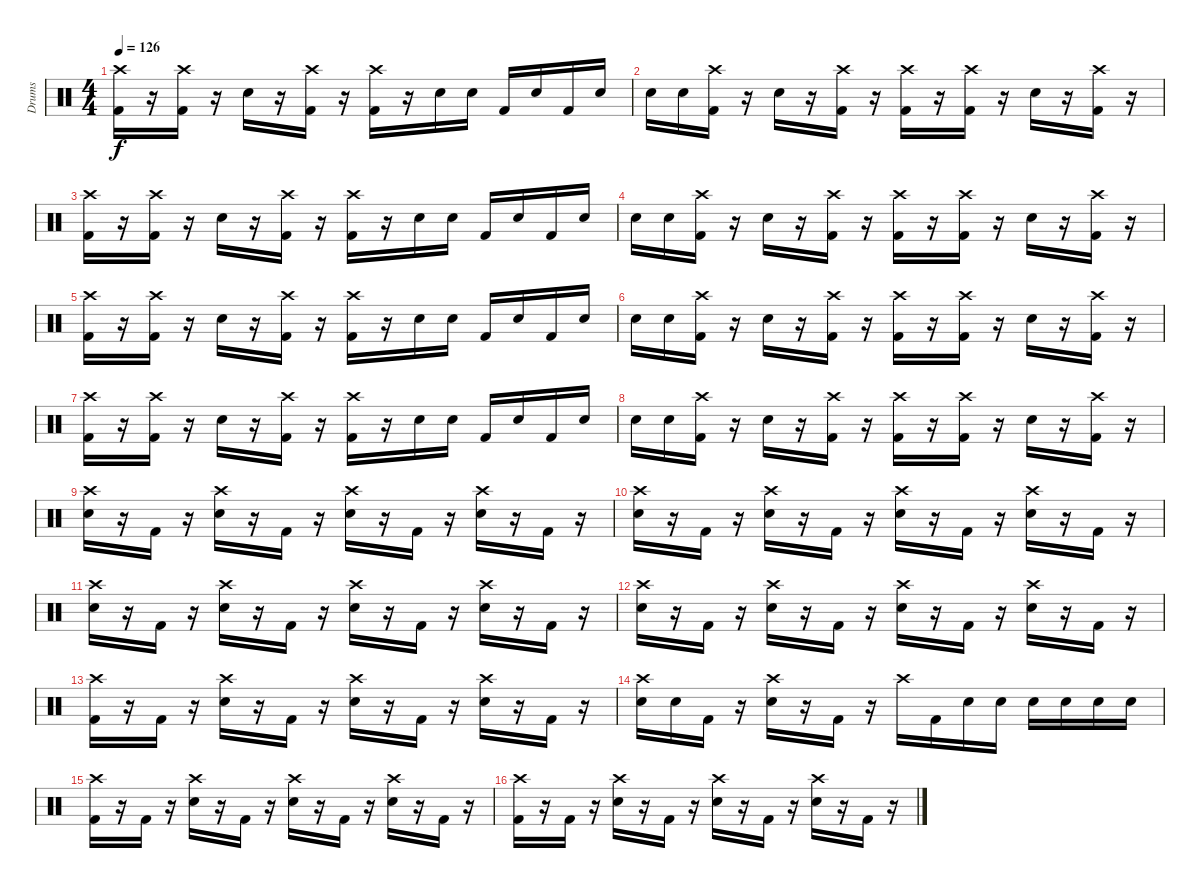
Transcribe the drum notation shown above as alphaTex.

\track ("Drums" "Drums") {instrument percussion}
\staff {score}
\articulation defaults
\ts (4 4)
\tempo 126
\clef neutral
\ks c
("Crash high (hit)" "Kick (hit) 2").16{dy f} r.16 ("Crash high (hit)" "Kick (hit) 2").16 r.16 "Electric Snare (hit)".16 r.16 ("Crash high (hit)" "Kick (hit) 2").16 r.16 ("Crash high (hit)" "Kick (hit) 2").16 r.16 "Electric Snare (hit)".16 "Electric Snare (hit)".16 "Kick (hit) 2".16 "Electric Snare (hit)".16 "Kick (hit) 2".16 "Electric Snare (hit)".16 |
"Electric Snare (hit)".16 "Electric Snare (hit)".16 ("Crash high (hit)" "Kick (hit) 2").16 r.16 "Electric Snare (hit)".16 r.16 ("Crash high (hit)" "Kick (hit) 2").16 r.16 ("Crash high (hit)" "Kick (hit) 2").16 r.16 ("Crash high (hit)" "Kick (hit) 2").16 r.16 "Electric Snare (hit)".16 r.16 ("Crash high (hit)" "Kick (hit) 2").16 r.16 |
("Crash high (hit)" "Kick (hit) 2").16 r.16 ("Crash high (hit)" "Kick (hit) 2").16 r.16 "Electric Snare (hit)".16 r.16 ("Crash high (hit)" "Kick (hit) 2").16 r.16 ("Crash high (hit)" "Kick (hit) 2").16 r.16 "Electric Snare (hit)".16 "Electric Snare (hit)".16 "Kick (hit) 2".16 "Electric Snare (hit)".16 "Kick (hit) 2".16 "Electric Snare (hit)".16 |
"Electric Snare (hit)".16 "Electric Snare (hit)".16 ("Crash high (hit)" "Kick (hit) 2").16 r.16 "Electric Snare (hit)".16 r.16 ("Crash high (hit)" "Kick (hit) 2").16 r.16 ("Crash high (hit)" "Kick (hit) 2").16 r.16 ("Crash high (hit)" "Kick (hit) 2").16 r.16 "Electric Snare (hit)".16 r.16 ("Crash high (hit)" "Kick (hit) 2").16 r.16 |
("Crash high (hit)" "Kick (hit) 2").16 r.16 ("Crash high (hit)" "Kick (hit) 2").16 r.16 "Electric Snare (hit)".16 r.16 ("Crash high (hit)" "Kick (hit) 2").16 r.16 ("Crash high (hit)" "Kick (hit) 2").16 r.16 "Electric Snare (hit)".16 "Electric Snare (hit)".16 "Kick (hit) 2".16 "Electric Snare (hit)".16 "Kick (hit) 2".16 "Electric Snare (hit)".16 |
"Electric Snare (hit)".16 "Electric Snare (hit)".16 ("Crash high (hit)" "Kick (hit) 2").16 r.16 "Electric Snare (hit)".16 r.16 ("Crash high (hit)" "Kick (hit) 2").16 r.16 ("Crash high (hit)" "Kick (hit) 2").16 r.16 ("Crash high (hit)" "Kick (hit) 2").16 r.16 "Electric Snare (hit)".16 r.16 ("Crash high (hit)" "Kick (hit) 2").16 r.16 |
("Crash high (hit)" "Kick (hit) 2").16 r.16 ("Crash high (hit)" "Kick (hit) 2").16 r.16 "Electric Snare (hit)".16 r.16 ("Crash high (hit)" "Kick (hit) 2").16 r.16 ("Crash high (hit)" "Kick (hit) 2").16 r.16 "Electric Snare (hit)".16 "Electric Snare (hit)".16 "Kick (hit) 2".16 "Electric Snare (hit)".16 "Kick (hit) 2".16 "Electric Snare (hit)".16 |
"Electric Snare (hit)".16 "Electric Snare (hit)".16 ("Crash high (hit)" "Kick (hit) 2").16 r.16 "Electric Snare (hit)".16 r.16 ("Crash high (hit)" "Kick (hit) 2").16 r.16 ("Crash high (hit)" "Kick (hit) 2").16 r.16 ("Crash high (hit)" "Kick (hit) 2").16 r.16 "Electric Snare (hit)".16 r.16 ("Crash high (hit)" "Kick (hit) 2").16 r.16 |
("Crash high (hit)" "Electric Snare (hit)").16 r.16 "Kick (hit) 2".16 r.16 ("Crash high (hit)" "Electric Snare (hit)").16 r.16 "Kick (hit) 2".16 r.16 ("Crash high (hit)" "Electric Snare (hit)").16 r.16 "Kick (hit) 2".16 r.16 ("Crash high (hit)" "Electric Snare (hit)").16 r.16 "Kick (hit) 2".16 r.16 |
("Crash high (hit)" "Electric Snare (hit)").16 r.16 "Kick (hit) 2".16 r.16 ("Crash high (hit)" "Electric Snare (hit)").16 r.16 "Kick (hit) 2".16 r.16 ("Crash high (hit)" "Electric Snare (hit)").16 r.16 "Kick (hit) 2".16 r.16 ("Crash high (hit)" "Electric Snare (hit)").16 r.16 "Kick (hit) 2".16 r.16 |
("Crash high (hit)" "Electric Snare (hit)").16 r.16 "Kick (hit) 2".16 r.16 ("Crash high (hit)" "Electric Snare (hit)").16 r.16 "Kick (hit) 2".16 r.16 ("Crash high (hit)" "Electric Snare (hit)").16 r.16 "Kick (hit) 2".16 r.16 ("Crash high (hit)" "Electric Snare (hit)").16 r.16 "Kick (hit) 2".16 r.16 |
("Crash high (hit)" "Electric Snare (hit)").16 r.16 "Kick (hit) 2".16 r.16 ("Crash high (hit)" "Electric Snare (hit)").16 r.16 "Kick (hit) 2".16 r.16 ("Crash high (hit)" "Electric Snare (hit)").16 r.16 "Kick (hit) 2".16 r.16 ("Crash high (hit)" "Electric Snare (hit)").16 r.16 "Kick (hit) 2".16 r.16 |
("Crash high (hit)" "Kick (hit) 2").16 r.16 "Kick (hit) 2".16 r.16 ("Crash high (hit)" "Electric Snare (hit)").16 r.16 "Kick (hit) 2".16 r.16 ("Crash high (hit)" "Electric Snare (hit)").16 r.16 "Kick (hit) 2".16 r.16 ("Crash high (hit)" "Electric Snare (hit)").16 r.16 "Kick (hit) 2".16 r.16 |
("Crash high (hit)" "Electric Snare (hit)").16 "Electric Snare (hit)".16 "Kick (hit) 2".16 r.16 ("Crash high (hit)" "Electric Snare (hit)").16 r.16 "Kick (hit) 2".16 r.16 "Crash high (hit)".16 "Kick (hit) 2".16 "Electric Snare (hit)".16 "Electric Snare (hit)".16 "Electric Snare (hit)".16 "Electric Snare (hit)".16 "Electric Snare (hit)".16 "Electric Snare (hit)".16 |
("Crash high (hit)" "Kick (hit) 2").16 r.16 "Kick (hit) 2".16 r.16 ("Crash high (hit)" "Electric Snare (hit)").16 r.16 "Kick (hit) 2".16 r.16 ("Crash high (hit)" "Electric Snare (hit)").16 r.16 "Kick (hit) 2".16 r.16 ("Crash high (hit)" "Electric Snare (hit)").16 r.16 "Kick (hit) 2".16 r.16 |
("Crash high (hit)" "Kick (hit) 2").16 r.16 "Kick (hit) 2".16 r.16 ("Crash high (hit)" "Electric Snare (hit)").16 r.16 "Kick (hit) 2".16 r.16 ("Crash high (hit)" "Electric Snare (hit)").16 r.16 "Kick (hit) 2".16 r.16 ("Crash high (hit)" "Electric Snare (hit)").16 r.16 "Kick (hit) 2".16 r.16
